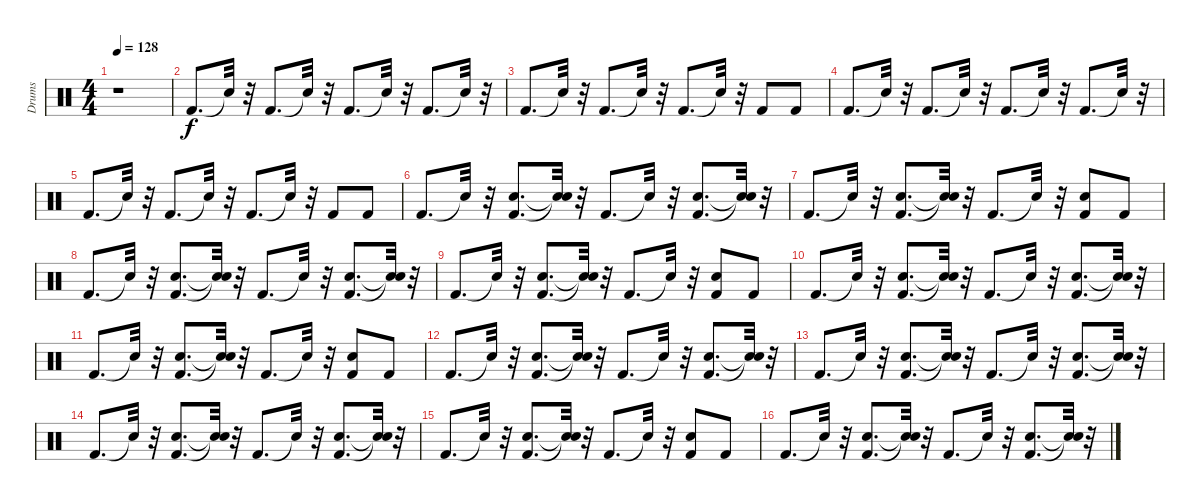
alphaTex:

\track ("Drums" "Drums") {instrument percussion}
\staff {score}
\articulation defaults
\ts (4 4)
\tempo 128
\clef neutral
\ks c
r.1{dy f} |
"Kick (hit) 2".8{d} "Snare (hit)"{t}.32 r.32 "Kick (hit) 2".8{d} "Snare (hit)"{t}.32 r.32 "Kick (hit) 2".8{d} "Snare (hit)"{t}.32 r.32 "Kick (hit) 2".8{d} "Snare (hit)"{t}.32 r.32 |
"Kick (hit) 2".8{d} "Snare (hit)"{t}.32 r.32 "Kick (hit) 2".8{d} "Snare (hit)"{t}.32 r.32 "Kick (hit) 2".8{d} "Snare (hit)"{t}.32 r.32 "Kick (hit) 2".8 "Kick (hit) 2".8 |
"Kick (hit) 2".8{d} "Snare (hit)"{t}.32 r.32 "Kick (hit) 2".8{d} "Snare (hit)"{t}.32 r.32 "Kick (hit) 2".8{d} "Snare (hit)"{t}.32 r.32 "Kick (hit) 2".8{d} "Snare (hit)"{t}.32 r.32 |
"Kick (hit) 2".8{d} "Snare (hit)"{t}.32 r.32 "Kick (hit) 2".8{d} "Snare (hit)"{t}.32 r.32 "Kick (hit) 2".8{d} "Snare (hit)"{t}.32 r.32 "Kick (hit) 2".8 "Kick (hit) 2".8 |
"Kick (hit) 2".8{d} "Snare (hit)"{t}.32 r.32 ("Snare (hit) 2" "Kick (hit) 2").8{d} ("Snare (hit)"{t} "Snare (hit)"{t}).32 r.32 "Kick (hit) 2".8{d} "Snare (hit)"{t}.32 r.32 ("Snare (hit) 2" "Kick (hit) 2").8{d} ("Snare (hit)"{t} "Snare (hit)"{t}).32 r.32 |
"Kick (hit) 2".8{d} "Snare (hit)"{t}.32 r.32 ("Kick (hit) 2" "Snare (hit) 2").8{d} ("Snare (hit)"{t} "Snare (hit)"{t}).32 r.32 "Kick (hit) 2".8{d} "Snare (hit)"{t}.32 r.32 ("Kick (hit) 2" "Snare (hit) 2").8 "Kick (hit) 2".8 |
"Kick (hit) 2".8{d} "Snare (hit)"{t}.32 r.32 ("Kick (hit) 2" "Snare (hit) 2").8{d} ("Snare (hit)"{t} "Snare (hit)"{t}).32 r.32 "Kick (hit) 2".8{d} "Snare (hit)"{t}.32 r.32 ("Snare (hit) 2" "Kick (hit) 2").8{d} ("Snare (hit)"{t} "Snare (hit)"{t}).32 r.32 |
"Kick (hit) 2".8{d} "Snare (hit)"{t}.32 r.32 ("Snare (hit) 2" "Kick (hit) 2").8{d} ("Snare (hit)"{t} "Snare (hit)"{t}).32 r.32 "Kick (hit) 2".8{d} "Snare (hit)"{t}.32 r.32 ("Kick (hit) 2" "Snare (hit) 2").8 "Kick (hit) 2".8 |
"Kick (hit) 2".8{d} "Snare (hit)"{t}.32 r.32 ("Snare (hit) 2" "Kick (hit) 2").8{d} ("Snare (hit)"{t} "Snare (hit)"{t}).32 r.32 "Kick (hit) 2".8{d} "Snare (hit)"{t}.32 r.32 ("Kick (hit) 2" "Snare (hit) 2").8{d} ("Snare (hit)"{t} "Snare (hit)"{t}).32 r.32 |
"Kick (hit) 2".8{d} "Snare (hit)"{t}.32 r.32 ("Kick (hit) 2" "Snare (hit) 2").8{d} ("Snare (hit)"{t} "Snare (hit)"{t}).32 r.32 "Kick (hit) 2".8{d} "Snare (hit)"{t}.32 r.32 ("Kick (hit) 2" "Snare (hit) 2").8 "Kick (hit) 2".8 |
"Kick (hit) 2".8{d} "Snare (hit)"{t}.32 r.32 ("Snare (hit) 2" "Kick (hit) 2").8{d} ("Snare (hit)"{t} "Snare (hit)"{t}).32 r.32 "Kick (hit) 2".8{d} "Snare (hit)"{t}.32 r.32 ("Snare (hit) 2" "Kick (hit) 2").8{d} ("Snare (hit)"{t} "Snare (hit)"{t}).32 r.32 |
"Kick (hit) 2".8{d} "Snare (hit)"{t}.32 r.32 ("Kick (hit) 2" "Snare (hit) 2").8{d} ("Snare (hit)"{t} "Snare (hit)"{t}).32 r.32 "Kick (hit) 2".8{d} "Snare (hit)"{t}.32 r.32 ("Snare (hit) 2" "Kick (hit) 2").8{d} ("Snare (hit)"{t} "Snare (hit)"{t}).32 r.32 |
"Kick (hit) 2".8{d} "Snare (hit)"{t}.32 r.32 ("Kick (hit) 2" "Snare (hit) 2").8{d} ("Snare (hit)"{t} "Snare (hit)"{t}).32 r.32 "Kick (hit) 2".8{d} "Snare (hit)"{t}.32 r.32 ("Kick (hit) 2" "Snare (hit) 2").8{d} ("Snare (hit)"{t} "Snare (hit)"{t}).32 r.32 |
"Kick (hit) 2".8{d} "Snare (hit)"{t}.32 r.32 ("Kick (hit) 2" "Snare (hit) 2").8{d} ("Snare (hit)"{t} "Snare (hit)"{t}).32 r.32 "Kick (hit) 2".8{d} "Snare (hit)"{t}.32 r.32 ("Snare (hit) 2" "Kick (hit) 2").8 "Kick (hit) 2".8 |
"Kick (hit) 2".8{d} "Snare (hit)"{t}.32 r.32 ("Snare (hit) 2" "Kick (hit) 2").8{d} ("Snare (hit)"{t} "Snare (hit)"{t}).32 r.32 "Kick (hit) 2".8{d} "Snare (hit)"{t}.32 r.32 ("Kick (hit) 2" "Snare (hit) 2").8{d} ("Snare (hit)"{t} "Snare (hit)"{t}).32 r.32
